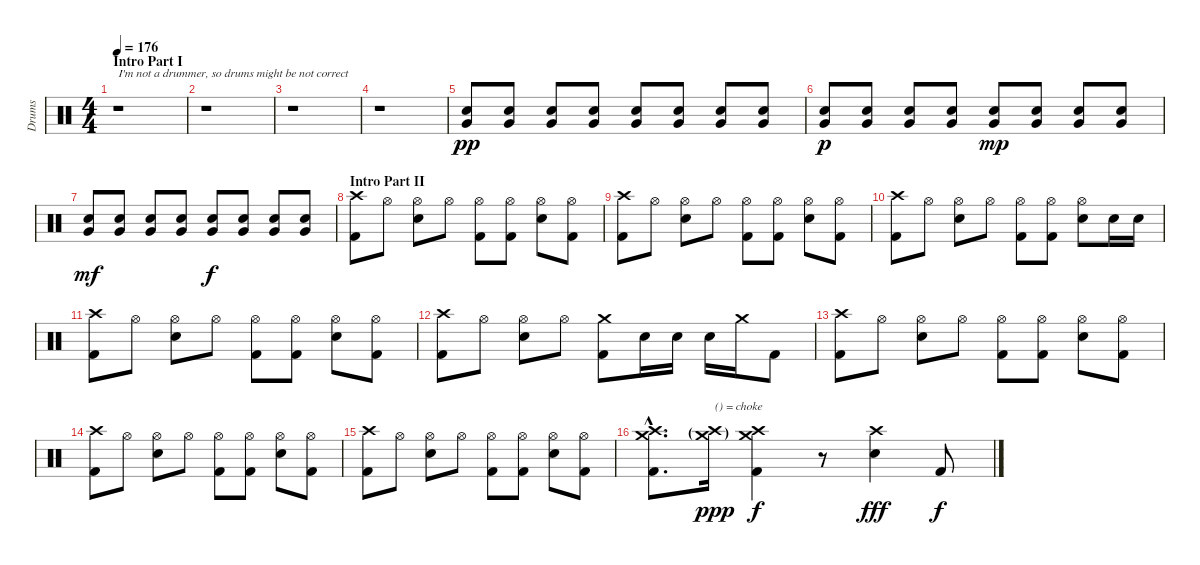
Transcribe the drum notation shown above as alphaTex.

\track ("Drums" "Drums") {instrument percussion}
\staff {score}
\articulation defaults
\ts (4 4)
\section ("" "Intro Part I")
\tempo 176
\clef neutral
\ks c
r.1{txt "I'm not a drummer, so drums might be not correct" dy pp} |
r.1 |
r.1 |
r.1 |
("Electric Snare (hit)" "Very Low Tom (hit)").8 ("Electric Snare (hit)" "Very Low Tom (hit)").8 ("Electric Snare (hit)" "Very Low Tom (hit)").8 ("Electric Snare (hit)" "Very Low Tom (hit)").8 ("Electric Snare (hit)" "Very Low Tom (hit)").8 ("Electric Snare (hit)" "Very Low Tom (hit)").8 ("Electric Snare (hit)" "Very Low Tom (hit)").8 ("Electric Snare (hit)" "Very Low Tom (hit)").8 |
("Electric Snare (hit)" "Very Low Tom (hit)").8{dy p} ("Electric Snare (hit)" "Very Low Tom (hit)").8 ("Electric Snare (hit)" "Very Low Tom (hit)").8 ("Electric Snare (hit)" "Very Low Tom (hit)").8 ("Electric Snare (hit)" "Very Low Tom (hit)").8{dy mp} ("Electric Snare (hit)" "Very Low Tom (hit)").8 ("Electric Snare (hit)" "Very Low Tom (hit)").8 ("Electric Snare (hit)" "Very Low Tom (hit)").8 |
("Electric Snare (hit)" "Very Low Tom (hit)").8{dy mf} ("Electric Snare (hit)" "Very Low Tom (hit)").8 ("Electric Snare (hit)" "Very Low Tom (hit)").8 ("Electric Snare (hit)" "Very Low Tom (hit)").8 ("Electric Snare (hit)" "Very Low Tom (hit)").8{dy f} ("Electric Snare (hit)" "Very Low Tom (hit)").8 ("Electric Snare (hit)" "Very Low Tom (hit)").8 ("Electric Snare (hit)" "Very Low Tom (hit)").8 |
\section ("" "Intro Part II")
("Crash high (hit)" "Kick (hit) 2").8 "Hi-Hat (open)".8 ("Hi-Hat (open)" "Electric Snare (hit)").8 "Hi-Hat (open)".8 ("Hi-Hat (open)" "Kick (hit) 2").8 ("Hi-Hat (open)" "Kick (hit) 2").8 ("Hi-Hat (open)" "Electric Snare (hit)").8 ("Hi-Hat (open)" "Kick (hit) 2").8 |
("Crash high (hit)" "Kick (hit) 2").8 "Hi-Hat (open)".8 ("Hi-Hat (open)" "Electric Snare (hit)").8 "Hi-Hat (open)".8 ("Hi-Hat (open)" "Kick (hit) 2").8 ("Hi-Hat (open)" "Kick (hit) 2").8 ("Hi-Hat (open)" "Electric Snare (hit)").8 ("Hi-Hat (open)" "Kick (hit) 2").8 |
("Crash high (hit)" "Kick (hit) 2").8 "Hi-Hat (open)".8 ("Hi-Hat (open)" "Electric Snare (hit)").8 "Hi-Hat (open)".8 ("Hi-Hat (open)" "Kick (hit) 2").8 ("Hi-Hat (open)" "Kick (hit) 2").8 ("Hi-Hat (open)" "Electric Snare (hit)").8 "Electric Snare (hit)".16 "Electric Snare (hit)".16 |
("Crash high (hit)" "Kick (hit) 2").8 "Hi-Hat (open)".8 ("Hi-Hat (open)" "Electric Snare (hit)").8 "Hi-Hat (open)".8 ("Hi-Hat (open)" "Kick (hit) 2").8 ("Hi-Hat (open)" "Kick (hit) 2").8 ("Hi-Hat (open)" "Electric Snare (hit)").8 ("Hi-Hat (open)" "Kick (hit) 2").8 |
("Crash high (hit)" "Kick (hit) 2").8 "Hi-Hat (open)".8 ("Hi-Hat (open)" "Electric Snare (hit)").8 "Hi-Hat (open)".8 ("Crash medium (hit)" "Kick (hit) 2").8 "Electric Snare (hit)".16 "Electric Snare (hit)".16 "Electric Snare (hit)".16 "Crash medium (hit)".16 "Kick (hit) 2".8 |
("Crash high (hit)" "Kick (hit) 2").8 "Hi-Hat (open)".8 ("Hi-Hat (open)" "Electric Snare (hit)").8 "Hi-Hat (open)".8 ("Hi-Hat (open)" "Kick (hit) 2").8 ("Hi-Hat (open)" "Kick (hit) 2").8 ("Hi-Hat (open)" "Electric Snare (hit)").8 ("Hi-Hat (open)" "Kick (hit) 2").8 |
("Crash high (hit)" "Kick (hit) 2").8 "Hi-Hat (open)".8 ("Hi-Hat (open)" "Electric Snare (hit)").8 "Hi-Hat (open)".8 ("Hi-Hat (open)" "Kick (hit) 2").8 ("Hi-Hat (open)" "Kick (hit) 2").8 ("Hi-Hat (open)" "Electric Snare (hit)").8 ("Hi-Hat (open)" "Kick (hit) 2").8 |
("Crash high (hit)" "Kick (hit) 2").8 "Hi-Hat (open)".8 ("Hi-Hat (open)" "Electric Snare (hit)").8 "Hi-Hat (open)".8 ("Hi-Hat (open)" "Kick (hit) 2").8 ("Hi-Hat (open)" "Kick (hit) 2").8 ("Hi-Hat (open)" "Electric Snare (hit)").8 ("Hi-Hat (open)" "Kick (hit) 2").8 |
("Crash high (hit)"{hac} "Crash medium (hit)"{hac} "Kick (hit) 2"{hac}).8{d} ("Crash high (hit)"{g} "Crash medium (hit)"{g}).16{txt "() = choke" dy ppp} ("Crash high (hit)" "Crash medium (hit)" "Kick (hit) 2").4{dy f} r.8 ("Crash high (hit)" "Electric Snare (hit)").4{dy fff} "Kick (hit) 2".8{dy f}
